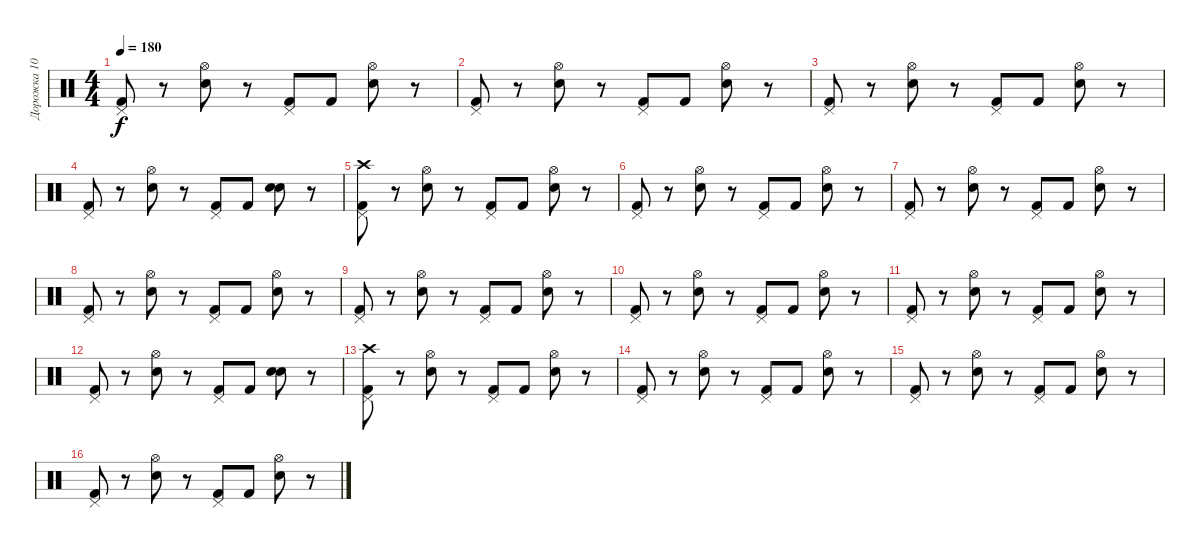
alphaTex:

\track ("Дорожка 10" "Дорожка 10") {instrument percussion}
\staff {score}
\articulation defaults
\ts (4 4)
\tempo 180
\clef neutral
\ks c
("Kick (hit) 2" "Pedal Hi-Hat (hit)").8{dy f} r.8 ("Snare (hit) 2" "Hi-Hat (open)").8 r.8 ("Kick (hit) 2" "Pedal Hi-Hat (hit)").8 "Kick (hit) 2".8 ("Snare (hit) 2" "Hi-Hat (open)").8 r.8 |
("Kick (hit) 2" "Pedal Hi-Hat (hit)").8 r.8 ("Snare (hit) 2" "Hi-Hat (open)").8 r.8 ("Kick (hit) 2" "Pedal Hi-Hat (hit)").8 "Kick (hit) 2".8 ("Snare (hit) 2" "Hi-Hat (open)").8 r.8 |
("Kick (hit) 2" "Pedal Hi-Hat (hit)").8 r.8 ("Snare (hit) 2" "Hi-Hat (open)").8 r.8 ("Kick (hit) 2" "Pedal Hi-Hat (hit)").8 "Kick (hit) 2".8 ("Snare (hit) 2" "Hi-Hat (open)").8 r.8 |
("Kick (hit) 2" "Pedal Hi-Hat (hit)").8 r.8 ("Snare (hit) 2" "Hi-Hat (open)").8 r.8 ("Kick (hit) 2" "Pedal Hi-Hat (hit)").8 "Kick (hit) 2".8 ("Snare (hit) 2" "Electric Snare (hit)").8 r.8 |
("Kick (hit) 2" "Crash high (hit)" "Pedal Hi-Hat (hit)").8 r.8 ("Snare (hit) 2" "Hi-Hat (open)").8 r.8 ("Kick (hit) 2" "Pedal Hi-Hat (hit)").8 "Kick (hit) 2".8 ("Snare (hit) 2" "Hi-Hat (open)").8 r.8 |
("Kick (hit) 2" "Pedal Hi-Hat (hit)").8 r.8 ("Snare (hit) 2" "Hi-Hat (open)").8 r.8 ("Kick (hit) 2" "Pedal Hi-Hat (hit)").8 "Kick (hit) 2".8 ("Snare (hit) 2" "Hi-Hat (open)").8 r.8 |
("Kick (hit) 2" "Pedal Hi-Hat (hit)").8 r.8 ("Snare (hit) 2" "Hi-Hat (open)").8 r.8 ("Kick (hit) 2" "Pedal Hi-Hat (hit)").8 "Kick (hit) 2".8 ("Snare (hit) 2" "Hi-Hat (open)").8 r.8 |
("Kick (hit) 2" "Pedal Hi-Hat (hit)").8 r.8 ("Snare (hit) 2" "Hi-Hat (open)").8 r.8 ("Kick (hit) 2" "Pedal Hi-Hat (hit)").8 "Kick (hit) 2".8 ("Snare (hit) 2" "Hi-Hat (open)").8 r.8 |
("Kick (hit) 2" "Pedal Hi-Hat (hit)").8 r.8 ("Snare (hit) 2" "Hi-Hat (open)").8 r.8 ("Kick (hit) 2" "Pedal Hi-Hat (hit)").8 "Kick (hit) 2".8 ("Snare (hit) 2" "Hi-Hat (open)").8 r.8 |
("Kick (hit) 2" "Pedal Hi-Hat (hit)").8 r.8 ("Snare (hit) 2" "Hi-Hat (open)").8 r.8 ("Kick (hit) 2" "Pedal Hi-Hat (hit)").8 "Kick (hit) 2".8 ("Snare (hit) 2" "Hi-Hat (open)").8 r.8 |
("Kick (hit) 2" "Pedal Hi-Hat (hit)").8 r.8 ("Snare (hit) 2" "Hi-Hat (open)").8 r.8 ("Kick (hit) 2" "Pedal Hi-Hat (hit)").8 "Kick (hit) 2".8 ("Snare (hit) 2" "Hi-Hat (open)").8 r.8 |
("Kick (hit) 2" "Pedal Hi-Hat (hit)").8 r.8 ("Snare (hit) 2" "Hi-Hat (open)").8 r.8 ("Kick (hit) 2" "Pedal Hi-Hat (hit)").8 "Kick (hit) 2".8 ("Snare (hit) 2" "Electric Snare (hit)").8 r.8 |
("Kick (hit) 2" "Crash high (hit)" "Pedal Hi-Hat (hit)").8 r.8 ("Snare (hit) 2" "Hi-Hat (open)").8 r.8 ("Kick (hit) 2" "Pedal Hi-Hat (hit)").8 "Kick (hit) 2".8 ("Snare (hit) 2" "Hi-Hat (open)").8 r.8 |
("Kick (hit) 2" "Pedal Hi-Hat (hit)").8 r.8 ("Snare (hit) 2" "Hi-Hat (open)").8 r.8 ("Kick (hit) 2" "Pedal Hi-Hat (hit)").8 "Kick (hit) 2".8 ("Snare (hit) 2" "Hi-Hat (open)").8 r.8 |
("Kick (hit) 2" "Pedal Hi-Hat (hit)").8 r.8 ("Snare (hit) 2" "Hi-Hat (open)").8 r.8 ("Kick (hit) 2" "Pedal Hi-Hat (hit)").8 "Kick (hit) 2".8 ("Snare (hit) 2" "Hi-Hat (open)").8 r.8 |
("Kick (hit) 2" "Pedal Hi-Hat (hit)").8 r.8 ("Snare (hit) 2" "Hi-Hat (open)").8 r.8 ("Kick (hit) 2" "Pedal Hi-Hat (hit)").8 "Kick (hit) 2".8 ("Snare (hit) 2" "Hi-Hat (open)").8 r.8
